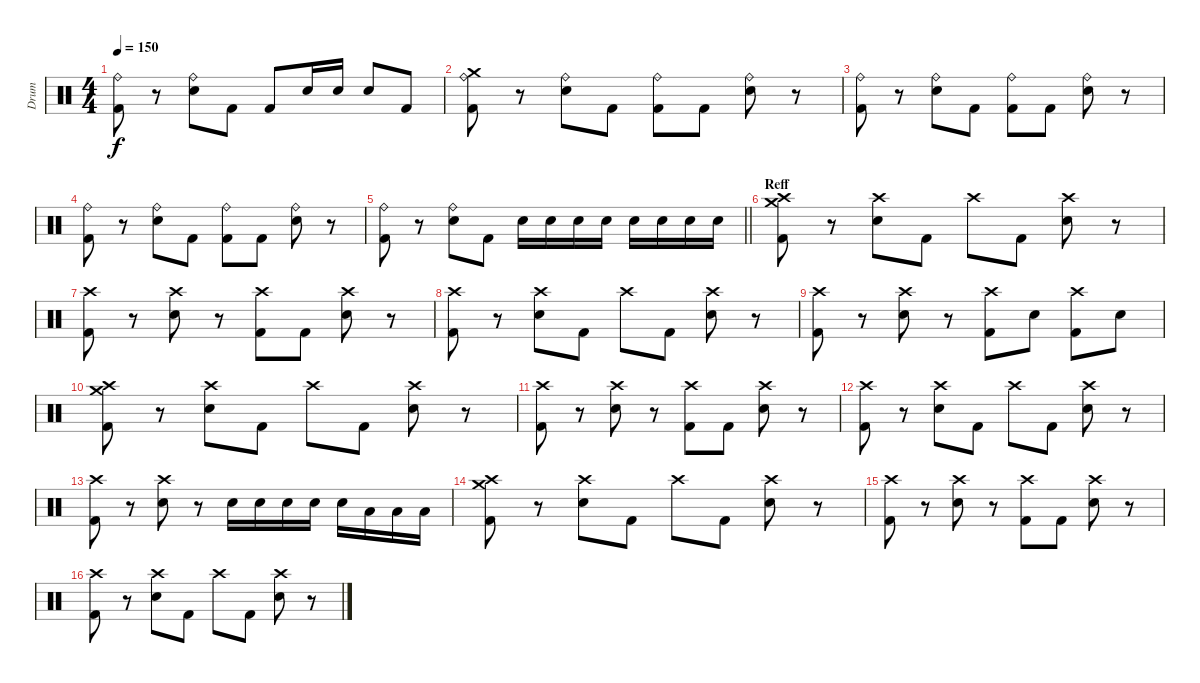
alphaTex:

\track ("Drum" "Drum") {instrument percussion}
\staff {score}
\articulation defaults
\ts (4 4)
\tempo 150
\clef neutral
\ks c
("Ride (bell)" "Kick (hit) 2").8{dy f} r.8 ("Ride (bell)" "Electric Snare (hit)").8 "Kick (hit) 2".8 "Kick (hit) 2".8 "Electric Snare (hit)".16 "Electric Snare (hit)".16 "Electric Snare (hit)".8 "Kick (hit) 2".8 |
("Ride (bell)" "Kick (hit) 2" "Crash medium (hit)").8 r.8 ("Ride (bell)" "Electric Snare (hit)").8 "Kick (hit) 2".8 ("Ride (bell)" "Kick (hit) 2").8 "Kick (hit) 2".8 ("Ride (bell)" "Electric Snare (hit)").8 r.8 |
("Ride (bell)" "Kick (hit) 2").8 r.8 ("Ride (bell)" "Electric Snare (hit)").8 "Kick (hit) 2".8 ("Ride (bell)" "Kick (hit) 2").8 "Kick (hit) 2".8 ("Ride (bell)" "Electric Snare (hit)").8 r.8 |
("Ride (bell)" "Kick (hit) 2").8 r.8 ("Ride (bell)" "Electric Snare (hit)").8 "Kick (hit) 2".8 ("Ride (bell)" "Kick (hit) 2").8 "Kick (hit) 2".8 ("Ride (bell)" "Electric Snare (hit)").8 r.8 |
\barLineRight lightlight
("Ride (bell)" "Kick (hit) 2").8 r.8 ("Ride (bell)" "Electric Snare (hit)").8 "Kick (hit) 2".8 "Electric Snare (hit)".16 "Electric Snare (hit)".16 "Electric Snare (hit)".16 "Electric Snare (hit)".16 "Electric Snare (hit)".16 "Electric Snare (hit)".16 "Electric Snare (hit)".16 "Electric Snare (hit)".16 |
\section ("" "Reff")
("Crash high (hit)" "Kick (hit) 2" "Crash medium (hit)").8 r.8 ("Crash high (hit)" "Electric Snare (hit)").8 "Kick (hit) 2".8 "Crash high (hit)".8 "Kick (hit) 2".8 ("Crash high (hit)" "Electric Snare (hit)").8 r.8 |
("Crash high (hit)" "Kick (hit) 2").8 r.8 ("Crash high (hit)" "Electric Snare (hit)").8 r.8 ("Crash high (hit)" "Kick (hit) 2").8 "Kick (hit) 2".8 ("Crash high (hit)" "Electric Snare (hit)").8 r.8 |
("Crash high (hit)" "Kick (hit) 2").8 r.8 ("Crash high (hit)" "Electric Snare (hit)").8 "Kick (hit) 2".8 "Crash high (hit)".8 "Kick (hit) 2".8 ("Crash high (hit)" "Electric Snare (hit)").8 r.8 |
("Crash high (hit)" "Kick (hit) 2").8 r.8 ("Crash high (hit)" "Electric Snare (hit)").8 r.8 ("Crash high (hit)" "Kick (hit) 2").8 "Electric Snare (hit)".8 ("Crash high (hit)" "Kick (hit) 2").8 "Electric Snare (hit)".8 |
("Crash high (hit)" "Kick (hit) 2" "Crash medium (hit)").8 r.8 ("Crash high (hit)" "Electric Snare (hit)").8 "Kick (hit) 2".8 "Crash high (hit)".8 "Kick (hit) 2".8 ("Crash high (hit)" "Electric Snare (hit)").8 r.8 |
("Crash high (hit)" "Kick (hit) 2").8 r.8 ("Crash high (hit)" "Electric Snare (hit)").8 r.8 ("Crash high (hit)" "Kick (hit) 2").8 "Kick (hit) 2".8 ("Crash high (hit)" "Electric Snare (hit)").8 r.8 |
("Crash high (hit)" "Kick (hit) 2").8 r.8 ("Crash high (hit)" "Electric Snare (hit)").8 "Kick (hit) 2".8 "Crash high (hit)".8 "Kick (hit) 2".8 ("Crash high (hit)" "Electric Snare (hit)").8 r.8 |
("Crash high (hit)" "Kick (hit) 2").8 r.8 ("Crash high (hit)" "Electric Snare (hit)").8 r.8 "Electric Snare (hit)".16 "Electric Snare (hit)".16 "Electric Snare (hit)".16 "Electric Snare (hit)".16 "Electric Snare (hit)".16 "Low Floor Tom (hit)".16 "Low Floor Tom (hit)".16 "Low Floor Tom (hit)".16 |
("Crash high (hit)" "Kick (hit) 2" "Crash medium (hit)").8 r.8 ("Crash high (hit)" "Electric Snare (hit)").8 "Kick (hit) 2".8 "Crash high (hit)".8 "Kick (hit) 2".8 ("Crash high (hit)" "Electric Snare (hit)").8 r.8 |
("Crash high (hit)" "Kick (hit) 2").8 r.8 ("Crash high (hit)" "Electric Snare (hit)").8 r.8 ("Crash high (hit)" "Kick (hit) 2").8 "Kick (hit) 2".8 ("Crash high (hit)" "Electric Snare (hit)").8 r.8 |
("Crash high (hit)" "Kick (hit) 2").8 r.8 ("Crash high (hit)" "Electric Snare (hit)").8 "Kick (hit) 2".8 "Crash high (hit)".8 "Kick (hit) 2".8 ("Crash high (hit)" "Electric Snare (hit)").8 r.8
